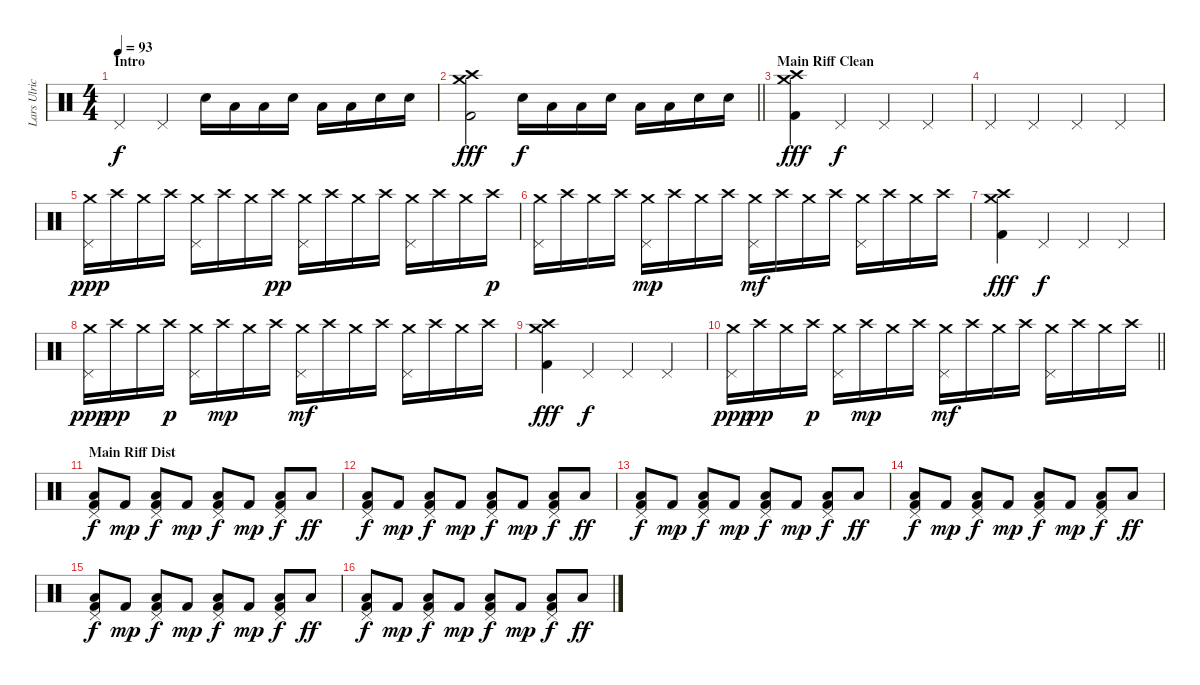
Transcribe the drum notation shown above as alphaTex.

\track ("Lars Ulrich" "Lars Ulric") {instrument percussion}
\staff {score}
\articulation defaults
\ts (4 4)
\section ("" "Intro")
\tempo 93
\clef neutral
\ks c "Pedal Hi-Hat (hit)".4{dy f} "Pedal Hi-Hat (hit)".4 "Snare (hit) 2".16 "Low Tom (hit)".16 "Low Floor Tom (hit)".16 "Snare (hit) 2".16 "Low Tom (hit)".16 "Low Floor Tom (hit)".16 "Snare (hit) 2".16 "Snare (hit) 2".16
|
\barLineRight lightlight
("Crash high (hit)" "Crash medium (hit)" "Kick (hit) 2").2{dy fff} "Snare (hit) 2".16{dy f} "Low Tom (hit)".16 "Low Floor Tom (hit)".16 "Snare (hit) 2".16 "Low Tom (hit)".16 "Low Floor Tom (hit)".16 "Snare (hit) 2".16 "Snare (hit) 2".16 |
\section ("" "Main Riff Clean")
("Crash medium (hit)" "Crash high (hit)" "Kick (hit) 2").4{dy fff} "Pedal Hi-Hat (hit)".4{dy f} "Pedal Hi-Hat (hit)".4 "Pedal Hi-Hat (hit)".4 |
"Pedal Hi-Hat (hit)".4 "Pedal Hi-Hat (hit)".4 "Pedal Hi-Hat (hit)".4 "Pedal Hi-Hat (hit)".4 |
("Crash medium (hit)" "Pedal Hi-Hat (hit)").16{dy ppp} "Crash high (hit)".16 "Crash medium (hit)".16 "Crash high (hit)".16 ("Crash medium (hit)" "Pedal Hi-Hat (hit)").16 "Crash high (hit)".16 "Crash medium (hit)".16 "Crash high (hit)".16{dy pp} ("Crash medium (hit)" "Pedal Hi-Hat (hit)").16 "Crash high (hit)".16 "Crash medium (hit)".16 "Crash high (hit)".16 ("Crash medium (hit)" "Pedal Hi-Hat (hit)").16 "Crash high (hit)".16 "Crash medium (hit)".16 "Crash high (hit)".16{dy p} |
("Crash medium (hit)" "Pedal Hi-Hat (hit)").16 "Crash high (hit)".16 "Crash medium (hit)".16 "Crash high (hit)".16 ("Crash medium (hit)" "Pedal Hi-Hat (hit)").16{dy mp} "Crash high (hit)".16 "Crash medium (hit)".16 "Crash high (hit)".16 ("Crash medium (hit)" "Pedal Hi-Hat (hit)").16{dy mf} "Crash high (hit)".16 "Crash medium (hit)".16 "Crash high (hit)".16 ("Crash medium (hit)" "Pedal Hi-Hat (hit)").16 "Crash high (hit)".16 "Crash medium (hit)".16 "Crash high (hit)".16 |
("Crash medium (hit)" "Crash high (hit)" "Kick (hit) 2").4{dy fff} "Pedal Hi-Hat (hit)".4{dy f} "Pedal Hi-Hat (hit)".4 "Pedal Hi-Hat (hit)".4 |
("Crash medium (hit)" "Pedal Hi-Hat (hit)").16{dy ppp} "Crash high (hit)".16{dy pp} "Crash medium (hit)".16 "Crash high (hit)".16{dy p} ("Crash medium (hit)" "Pedal Hi-Hat (hit)").16 "Crash high (hit)".16{dy mp} "Crash medium (hit)".16 "Crash high (hit)".16 ("Crash medium (hit)" "Pedal Hi-Hat (hit)").16{dy mf} "Crash high (hit)".16 "Crash medium (hit)".16 "Crash high (hit)".16 ("Crash medium (hit)" "Pedal Hi-Hat (hit)").16 "Crash high (hit)".16 "Crash medium (hit)".16 "Crash high (hit)".16 |
("Crash medium (hit)" "Crash high (hit)" "Kick (hit) 2").4{dy fff} "Pedal Hi-Hat (hit)".4{dy f} "Pedal Hi-Hat (hit)".4 "Pedal Hi-Hat (hit)".4 |
\barLineRight lightlight
("Crash medium (hit)" "Pedal Hi-Hat (hit)").16{dy ppp} "Crash high (hit)".16{dy pp} "Crash medium (hit)".16 "Crash high (hit)".16{dy p} ("Crash medium (hit)" "Pedal Hi-Hat (hit)").16 "Crash high (hit)".16{dy mp} "Crash medium (hit)".16 "Crash high (hit)".16 ("Crash medium (hit)" "Pedal Hi-Hat (hit)").16{dy mf} "Crash high (hit)".16 "Crash medium (hit)".16 "Crash high (hit)".16 ("Crash medium (hit)" "Pedal Hi-Hat (hit)").16 "Crash high (hit)".16 "Crash medium (hit)".16 "Crash high (hit)".16 |
\section ("" "Main Riff Dist")
("Pedal Hi-Hat (hit)" "Low Floor Tom (hit)" "Kick (hit) 2").8{dy f} "Kick (hit) 2".8{dy mp} ("Pedal Hi-Hat (hit)" "Low Floor Tom (hit)" "Kick (hit) 2").8{dy f} "Kick (hit) 2".8{dy mp} ("Pedal Hi-Hat (hit)" "Low Floor Tom (hit)" "Kick (hit) 2").8{dy f} "Kick (hit) 2".8{dy mp} ("Pedal Hi-Hat (hit)" "Low Floor Tom (hit)" "Kick (hit) 2").8{dy f} "Low Floor Tom (hit)".8{dy ff} |
("Pedal Hi-Hat (hit)" "Low Floor Tom (hit)" "Kick (hit) 2").8{dy f} "Kick (hit) 2".8{dy mp} ("Pedal Hi-Hat (hit)" "Low Floor Tom (hit)" "Kick (hit) 2").8{dy f} "Kick (hit) 2".8{dy mp} ("Pedal Hi-Hat (hit)" "Low Floor Tom (hit)" "Kick (hit) 2").8{dy f} "Kick (hit) 2".8{dy mp} ("Pedal Hi-Hat (hit)" "Low Floor Tom (hit)" "Kick (hit) 2").8{dy f} "Low Floor Tom (hit)".8{dy ff} |
("Pedal Hi-Hat (hit)" "Low Floor Tom (hit)" "Kick (hit) 2").8{dy f} "Kick (hit) 2".8{dy mp} ("Pedal Hi-Hat (hit)" "Low Floor Tom (hit)" "Kick (hit) 2").8{dy f} "Kick (hit) 2".8{dy mp} ("Pedal Hi-Hat (hit)" "Low Floor Tom (hit)" "Kick (hit) 2").8{dy f} "Kick (hit) 2".8{dy mp} ("Pedal Hi-Hat (hit)" "Low Floor Tom (hit)" "Kick (hit) 2").8{dy f} "Low Floor Tom (hit)".8{dy ff} |
("Pedal Hi-Hat (hit)" "Low Floor Tom (hit)" "Kick (hit) 2").8{dy f} "Kick (hit) 2".8{dy mp} ("Pedal Hi-Hat (hit)" "Low Floor Tom (hit)" "Kick (hit) 2").8{dy f} "Kick (hit) 2".8{dy mp} ("Pedal Hi-Hat (hit)" "Low Floor Tom (hit)" "Kick (hit) 2").8{dy f} "Kick (hit) 2".8{dy mp} ("Pedal Hi-Hat (hit)" "Low Floor Tom (hit)" "Kick (hit) 2").8{dy f} "Low Floor Tom (hit)".8{dy ff} |
("Pedal Hi-Hat (hit)" "Low Floor Tom (hit)" "Kick (hit) 2").8{dy f} "Kick (hit) 2".8{dy mp} ("Pedal Hi-Hat (hit)" "Low Floor Tom (hit)" "Kick (hit) 2").8{dy f} "Kick (hit) 2".8{dy mp} ("Pedal Hi-Hat (hit)" "Low Floor Tom (hit)" "Kick (hit) 2").8{dy f} "Kick (hit) 2".8{dy mp} ("Pedal Hi-Hat (hit)" "Low Floor Tom (hit)" "Kick (hit) 2").8{dy f} "Low Floor Tom (hit)".8{dy ff} |
("Pedal Hi-Hat (hit)" "Low Floor Tom (hit)" "Kick (hit) 2").8{dy f} "Kick (hit) 2".8{dy mp} ("Pedal Hi-Hat (hit)" "Low Floor Tom (hit)" "Kick (hit) 2").8{dy f} "Kick (hit) 2".8{dy mp} ("Pedal Hi-Hat (hit)" "Low Floor Tom (hit)" "Kick (hit) 2").8{dy f} "Kick (hit) 2".8{dy mp} ("Pedal Hi-Hat (hit)" "Low Floor Tom (hit)" "Kick (hit) 2").8{dy f} "Low Floor Tom (hit)".8{dy ff}
